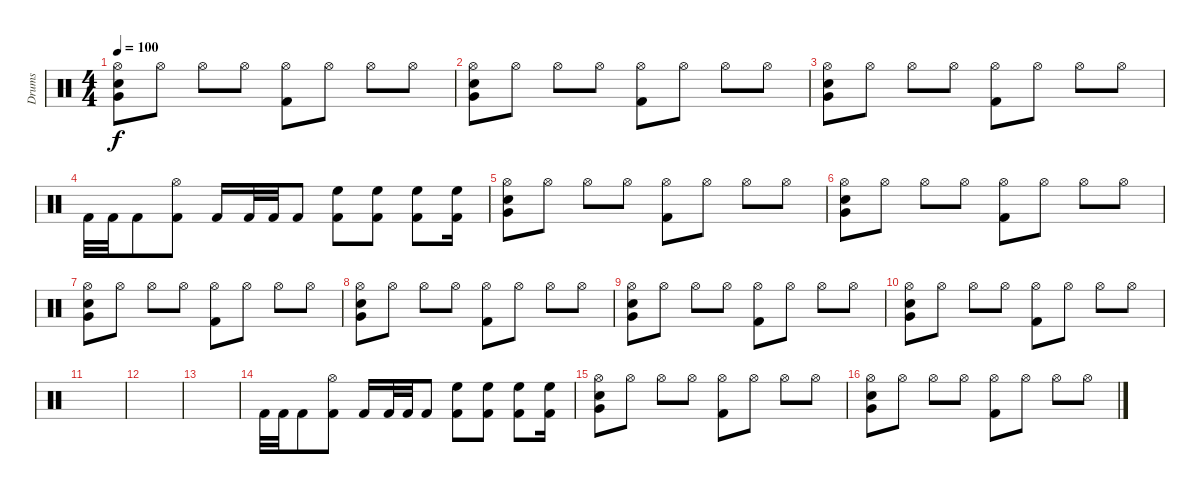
\track ("Drums" "Drums") {instrument percussion}
\staff {score}
\articulation defaults
\ts (4 4)
\tempo 100
\clef neutral
\ks c
("Hi-Hat (open)" "Snare (hit) 2" "Very Low Tom (hit)").8{dy f} "Hi-Hat (open)".8 "Hi-Hat (open)".8 "Hi-Hat (open)".8 ("Hi-Hat (open)" "Kick (hit) 2").8 "Hi-Hat (open)".8 "Hi-Hat (open)".8 "Hi-Hat (open)".8 |
("Hi-Hat (open)" "Snare (hit) 2" "Very Low Tom (hit)").8 "Hi-Hat (open)".8 "Hi-Hat (open)".8 "Hi-Hat (open)".8 ("Hi-Hat (open)" "Kick (hit) 2").8 "Hi-Hat (open)".8 "Hi-Hat (open)".8 "Hi-Hat (open)".8 |
("Hi-Hat (open)" "Snare (hit) 2" "Very Low Tom (hit)").8 "Hi-Hat (open)".8 "Hi-Hat (open)".8 "Hi-Hat (open)".8 ("Hi-Hat (open)" "Kick (hit) 2").8 "Hi-Hat (open)".8 "Hi-Hat (open)".8 "Hi-Hat (open)".8 |
"Kick (hit) 2".32 "Kick (hit) 2".32 "Kick (hit) 2".8 ("Hi-Hat (open)" "Kick (hit) 2").8 "Kick (hit) 2".16 "Kick (hit) 2".32 "Kick (hit) 2".32 "Kick (hit) 2".8 ("High Floor Tom (hit)" "Kick (hit) 2").8 ("High Floor Tom (hit)" "Kick (hit) 2").8 ("High Floor Tom (hit)" "Kick (hit) 2").8 ("High Floor Tom (hit)" "Kick (hit) 2").16 |
("Hi-Hat (open)" "Snare (hit) 2" "Very Low Tom (hit)").8 "Hi-Hat (open)".8 "Hi-Hat (open)".8 "Hi-Hat (open)".8 ("Hi-Hat (open)" "Kick (hit) 2").8 "Hi-Hat (open)".8 "Hi-Hat (open)".8 "Hi-Hat (open)".8 |
("Hi-Hat (open)" "Snare (hit) 2" "Very Low Tom (hit)").8 "Hi-Hat (open)".8 "Hi-Hat (open)".8 "Hi-Hat (open)".8 ("Hi-Hat (open)" "Kick (hit) 2").8 "Hi-Hat (open)".8 "Hi-Hat (open)".8 "Hi-Hat (open)".8 |
("Hi-Hat (open)" "Snare (hit) 2" "Very Low Tom (hit)").8 "Hi-Hat (open)".8 "Hi-Hat (open)".8 "Hi-Hat (open)".8 ("Hi-Hat (open)" "Kick (hit) 2").8 "Hi-Hat (open)".8 "Hi-Hat (open)".8 "Hi-Hat (open)".8 |
("Hi-Hat (open)" "Snare (hit) 2" "Very Low Tom (hit)").8 "Hi-Hat (open)".8 "Hi-Hat (open)".8 "Hi-Hat (open)".8 ("Hi-Hat (open)" "Kick (hit) 2").8 "Hi-Hat (open)".8 "Hi-Hat (open)".8 "Hi-Hat (open)".8 |
("Hi-Hat (open)" "Snare (hit) 2" "Very Low Tom (hit)").8 "Hi-Hat (open)".8 "Hi-Hat (open)".8 "Hi-Hat (open)".8 ("Hi-Hat (open)" "Kick (hit) 2").8 "Hi-Hat (open)".8 "Hi-Hat (open)".8 "Hi-Hat (open)".8 |
("Hi-Hat (open)" "Snare (hit) 2" "Very Low Tom (hit)").8 "Hi-Hat (open)".8 "Hi-Hat (open)".8 "Hi-Hat (open)".8 ("Hi-Hat (open)" "Kick (hit) 2").8 "Hi-Hat (open)".8 "Hi-Hat (open)".8 "Hi-Hat (open)".8 |
|
|
|
"Kick (hit) 2".32 "Kick (hit) 2".32 "Kick (hit) 2".8 ("Hi-Hat (open)" "Kick (hit) 2").8 "Kick (hit) 2".16 "Kick (hit) 2".32 "Kick (hit) 2".32 "Kick (hit) 2".8 ("High Floor Tom (hit)" "Kick (hit) 2").8 ("High Floor Tom (hit)" "Kick (hit) 2").8 ("High Floor Tom (hit)" "Kick (hit) 2").8 ("High Floor Tom (hit)" "Kick (hit) 2").16 |
("Hi-Hat (open)" "Snare (hit) 2" "Very Low Tom (hit)").8 "Hi-Hat (open)".8 "Hi-Hat (open)".8 "Hi-Hat (open)".8 ("Hi-Hat (open)" "Kick (hit) 2").8 "Hi-Hat (open)".8 "Hi-Hat (open)".8 "Hi-Hat (open)".8 |
("Hi-Hat (open)" "Snare (hit) 2" "Very Low Tom (hit)").8 "Hi-Hat (open)".8 "Hi-Hat (open)".8 "Hi-Hat (open)".8 ("Hi-Hat (open)" "Kick (hit) 2").8 "Hi-Hat (open)".8 "Hi-Hat (open)".8 "Hi-Hat (open)".8
